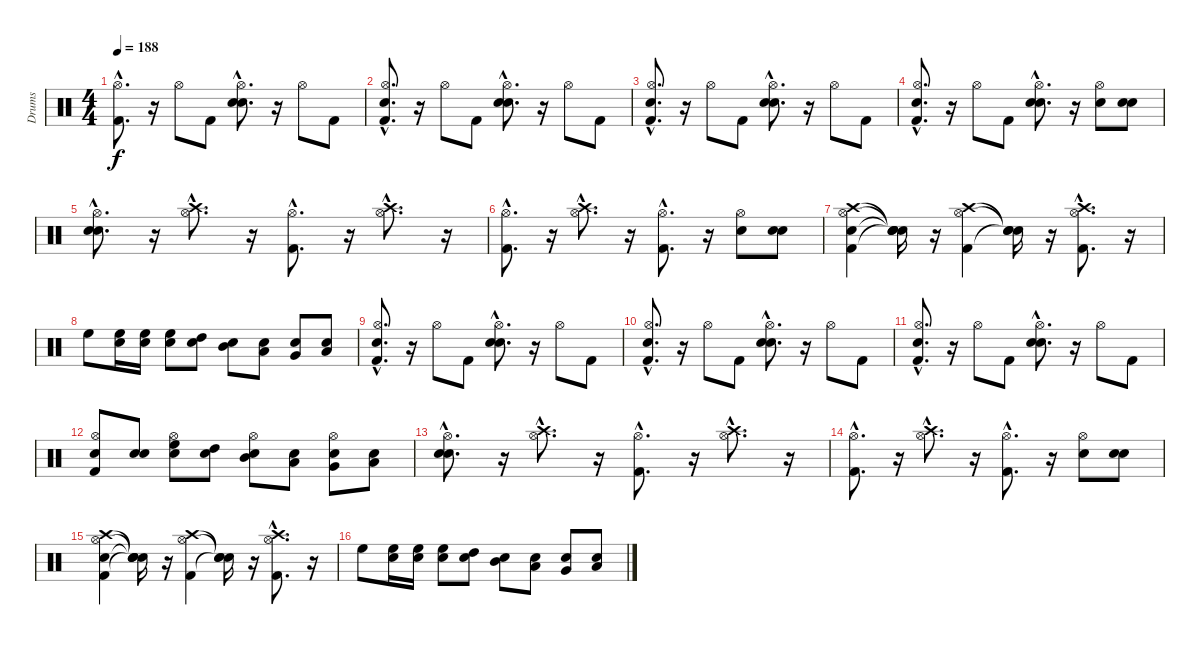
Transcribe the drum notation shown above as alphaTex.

\track ("Drums" "Drums") {instrument percussion}
\staff {score}
\articulation defaults
\ts (4 4)
\tempo 188
\clef neutral
\ks c
("Kick (hit) 2"{hac} "Hi-Hat (open)"{hac}).8{d dy f} r.16 "Hi-Hat (open)".8 "Kick (hit) 2".8 ("Snare (hit)"{hac} "Snare (hit) 2"{hac} "Hi-Hat (open)"{hac}).8{d} r.16 "Hi-Hat (open)".8 "Kick (hit) 2".8 |
("Snare (hit)"{hac} "Kick (hit) 2"{hac} "Hi-Hat (open)"{hac}).8{d} r.16 "Hi-Hat (open)".8 "Kick (hit) 2".8 ("Snare (hit)"{hac} "Snare (hit) 2"{hac} "Hi-Hat (open)"{hac}).8{d} r.16 "Hi-Hat (open)".8 "Kick (hit) 2".8 |
("Snare (hit)"{hac} "Kick (hit) 2"{hac} "Hi-Hat (open)"{hac}).8{d} r.16 "Hi-Hat (open)".8 "Kick (hit) 2".8 ("Snare (hit)"{hac} "Snare (hit) 2"{hac} "Hi-Hat (open)"{hac}).8{d} r.16 "Hi-Hat (open)".8 "Kick (hit) 2".8 |
("Snare (hit)"{hac} "Kick (hit) 2"{hac} "Hi-Hat (open)"{hac}).8{d} r.16 "Hi-Hat (open)".8 "Kick (hit) 2".8 ("Snare (hit)"{hac} "Snare (hit) 2"{hac} "Hi-Hat (open)"{hac}).8{d} r.16 ("Snare (hit) 2" "Hi-Hat (open)").8 ("Snare (hit)" "Snare (hit) 2").8 |
("Snare (hit)"{hac} "Snare (hit) 2"{hac} "Hi-Hat (open)"{hac}).8{d} r.16 ("Hi-Hat (open)"{hac} "Crash high (hit)"{hac}).8{d} r.16 ("Kick (hit) 2"{hac} "Hi-Hat (open)"{hac}).8{d} r.16 ("Hi-Hat (open)"{hac} "Crash high (hit)"{hac}).8{d} r.16 |
("Kick (hit) 2"{hac} "Hi-Hat (open)"{hac}).8{d} r.16 ("Hi-Hat (open)"{hac} "Crash high (hit)"{hac}).8{d} r.16 ("Kick (hit) 2"{hac} "Hi-Hat (open)"{hac}).8{d} r.16 ("Snare (hit) 2" "Hi-Hat (open)").8 ("Snare (hit)" "Snare (hit) 2").8 |
("Snare (hit)" "Kick (hit) 2" "Hi-Hat (open)" "Crash high (hit)").4 ("Snare (hit)"{t} "Snare (hit)"{t} "Snare (hit)"{t} "Snare (hit)"{t}).16 r.16 ("Kick (hit) 2" "Hi-Hat (open)" "Crash high (hit)").4 ("Snare (hit)"{t} "Snare (hit)"{t} "Snare (hit)"{t}).16 r.16 ("Kick (hit) 2"{hac} "Hi-Hat (open)"{hac} "Crash high (hit)"{hac}).8{d} r.16 |
"High Floor Tom (hit)".8 ("Snare (hit)" "High Floor Tom (hit)").16 ("Snare (hit)" "High Floor Tom (hit)").16 ("Snare (hit)" "High Floor Tom (hit)").8 ("Snare (hit)" "High Tom (hit)").8 ("Snare (hit)" "Mid Tom (hit)").8 ("Snare (hit)" "Low Tom (hit)").8 ("Snare (hit)" "Very Low Tom (hit)").8 ("Snare (hit)" "Low Floor Tom (hit)").8 |
("Snare (hit)"{hac} "Kick (hit) 2"{hac} "Hi-Hat (open)"{hac}).8{d} r.16 "Hi-Hat (open)".8 "Kick (hit) 2".8 ("Snare (hit)"{hac} "Snare (hit) 2"{hac} "Hi-Hat (open)"{hac}).8{d} r.16 "Hi-Hat (open)".8 "Kick (hit) 2".8 |
("Snare (hit)"{hac} "Kick (hit) 2"{hac} "Hi-Hat (open)"{hac}).8{d} r.16 "Hi-Hat (open)".8 "Kick (hit) 2".8 ("Snare (hit)"{hac} "Snare (hit) 2"{hac} "Hi-Hat (open)"{hac}).8{d} r.16 "Hi-Hat (open)".8 "Kick (hit) 2".8 |
("Snare (hit)"{hac} "Kick (hit) 2"{hac} "Hi-Hat (open)"{hac}).8{d} r.16 "Hi-Hat (open)".8 "Kick (hit) 2".8 ("Snare (hit)"{hac} "Snare (hit) 2"{hac} "Hi-Hat (open)"{hac}).8{d} r.16 "Hi-Hat (open)".8 "Kick (hit) 2".8 |
("Snare (hit)" "Kick (hit) 2" "Hi-Hat (open)").8 ("Snare (hit)" "Snare (hit) 2").8 ("Snare (hit)" "Hi-Hat (open)" "High Floor Tom (hit)").8 ("Snare (hit)" "High Tom (hit)").8 ("Snare (hit)" "Hi-Hat (open)" "Mid Tom (hit)").8 ("Snare (hit)" "Low Tom (hit)").8 ("Snare (hit)" "Very Low Tom (hit)" "Hi-Hat (open)").8 ("Snare (hit)" "Low Floor Tom (hit)").8 |
("Snare (hit)"{hac} "Snare (hit) 2"{hac} "Hi-Hat (open)"{hac}).8{d} r.16 ("Hi-Hat (open)"{hac} "Crash high (hit)"{hac}).8{d} r.16 ("Kick (hit) 2"{hac} "Hi-Hat (open)"{hac}).8{d} r.16 ("Hi-Hat (open)"{hac} "Crash high (hit)"{hac}).8{d} r.16 |
("Kick (hit) 2"{hac} "Hi-Hat (open)"{hac}).8{d} r.16 ("Hi-Hat (open)"{hac} "Crash high (hit)"{hac}).8{d} r.16 ("Kick (hit) 2"{hac} "Hi-Hat (open)"{hac}).8{d} r.16 ("Snare (hit) 2" "Hi-Hat (open)").8 ("Snare (hit)" "Snare (hit) 2").8 |
("Snare (hit)" "Kick (hit) 2" "Hi-Hat (open)" "Crash high (hit)").4 ("Snare (hit)"{t} "Snare (hit)"{t} "Snare (hit)"{t} "Snare (hit)"{t}).16 r.16 ("Kick (hit) 2" "Hi-Hat (open)" "Crash high (hit)").4 ("Snare (hit)"{t} "Snare (hit)"{t} "Snare (hit)"{t}).16 r.16 ("Kick (hit) 2"{hac} "Hi-Hat (open)"{hac} "Crash high (hit)"{hac}).8{d} r.16 |
"High Floor Tom (hit)".8 ("Snare (hit)" "High Floor Tom (hit)").16 ("Snare (hit)" "High Floor Tom (hit)").16 ("Snare (hit)" "High Floor Tom (hit)").8 ("Snare (hit)" "High Tom (hit)").8 ("Snare (hit)" "Mid Tom (hit)").8 ("Snare (hit)" "Low Tom (hit)").8 ("Snare (hit)" "Very Low Tom (hit)").8 ("Snare (hit)" "Low Floor Tom (hit)").8
